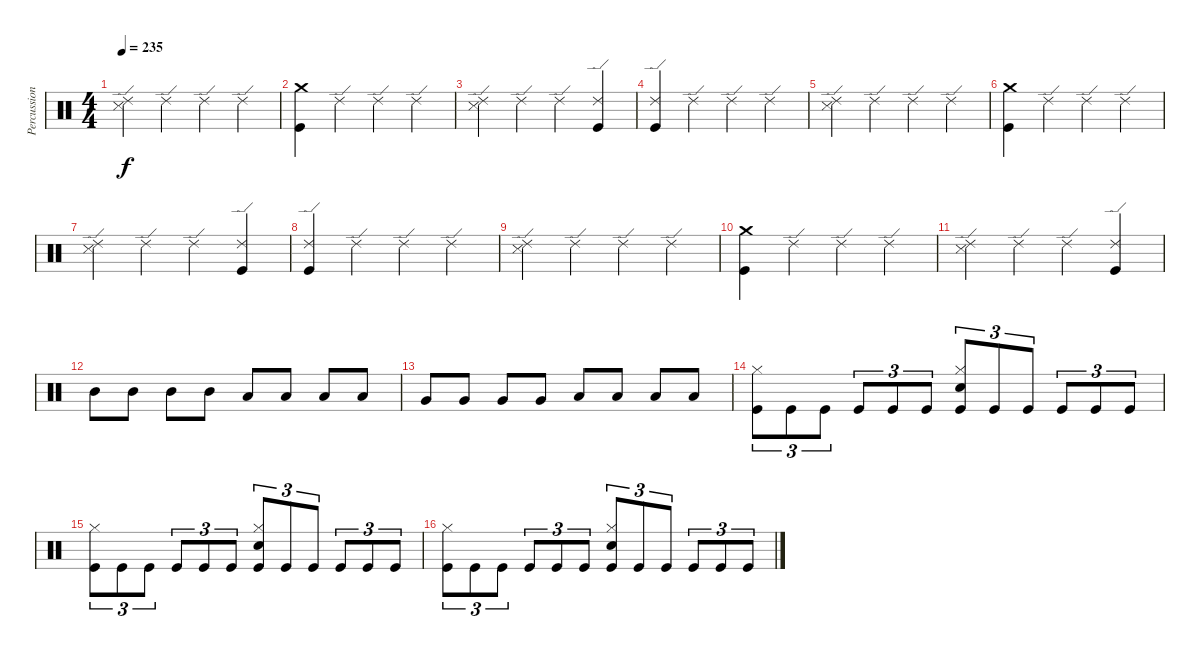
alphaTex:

\track ("Percussion" "Percussion") {instrument percussion}
\staff {score}
\articulation defaults
\ts (4 4)
\tempo 235
\clef neutral
\ks c
("Snare (side stick) 3" "Ride (edge) 2").4{dy f} "Ride (edge) 2".4 "Ride (edge) 2".4 "Ride (edge) 2".4 |
("Kick (hit)" "Crash medium (hit)").4 "Ride (edge) 2".4 "Ride (edge) 2".4 "Ride (edge) 2".4 |
("Snare (side stick) 3" "Ride (edge) 2").4 "Ride (edge) 2".4 "Ride (edge) 2".4 ("Kick (hit)" "Ride (edge) 2").4 |
("Kick (hit)" "Ride (edge) 2").4 "Ride (edge) 2".4 "Ride (edge) 2".4 "Ride (edge) 2".4 |
("Snare (side stick) 3" "Ride (edge) 2").4 "Ride (edge) 2".4 "Ride (edge) 2".4 "Ride (edge) 2".4 |
("Kick (hit)" "Crash medium (hit)").4 "Ride (edge) 2".4 "Ride (edge) 2".4 "Ride (edge) 2".4 |
("Snare (side stick) 3" "Ride (edge) 2").4 "Ride (edge) 2".4 "Ride (edge) 2".4 ("Kick (hit)" "Ride (edge) 2").4 |
("Kick (hit)" "Ride (edge) 2").4 "Ride (edge) 2".4 "Ride (edge) 2".4 "Ride (edge) 2".4 |
("Snare (side stick) 3" "Ride (edge) 2").4 "Ride (edge) 2".4 "Ride (edge) 2".4 "Ride (edge) 2".4 |
("Kick (hit)" "Crash medium (hit)").4 "Ride (edge) 2".4 "Ride (edge) 2".4 "Ride (edge) 2".4 |
("Snare (side stick) 3" "Ride (edge) 2").4 "Ride (edge) 2".4 "Ride (edge) 2".4 ("Kick (hit)" "Ride (edge) 2").4 |
"Mid Tom (hit)".8 "Mid Tom (hit)".8 "Mid Tom (hit)".8 "Mid Tom (hit)".8 "Low Tom (hit)".8 "Low Tom (hit)".8 "Low Tom (hit)".8 "Low Tom (hit)".8 |
"Very Low Tom (hit)".8 "Very Low Tom (hit)".8 "Very Low Tom (hit)".8 "Very Low Tom (hit)".8 "Low Floor Tom (hit)".8 "Low Floor Tom (hit)".8 "Low Floor Tom (hit)".8 "Low Floor Tom (hit)".8 |
("Kick (hit)" "Hi-Hat (closed)").8{tu (3 2)} "Kick (hit)".8{tu (3 2)} "Kick (hit)".8{tu (3 2)} "Kick (hit)".8{tu (3 2)} "Kick (hit)".8{tu (3 2)} "Kick (hit)".8{tu (3 2)} ("Kick (hit)" "Hi-Hat (closed)" "Snare (hit) 2").8{tu (3 2)} "Kick (hit)".8{tu (3 2)} "Kick (hit)".8{tu (3 2)} "Kick (hit)".8{tu (3 2)} "Kick (hit)".8{tu (3 2)} "Kick (hit)".8{tu (3 2)} |
("Kick (hit)" "Hi-Hat (closed)").8{tu (3 2)} "Kick (hit)".8{tu (3 2)} "Kick (hit)".8{tu (3 2)} "Kick (hit)".8{tu (3 2)} "Kick (hit)".8{tu (3 2)} "Kick (hit)".8{tu (3 2)} ("Kick (hit)" "Hi-Hat (closed)" "Snare (hit) 2").8{tu (3 2)} "Kick (hit)".8{tu (3 2)} "Kick (hit)".8{tu (3 2)} "Kick (hit)".8{tu (3 2)} "Kick (hit)".8{tu (3 2)} "Kick (hit)".8{tu (3 2)} |
("Kick (hit)" "Hi-Hat (closed)").8{tu (3 2)} "Kick (hit)".8{tu (3 2)} "Kick (hit)".8{tu (3 2)} "Kick (hit)".8{tu (3 2)} "Kick (hit)".8{tu (3 2)} "Kick (hit)".8{tu (3 2)} ("Kick (hit)" "Hi-Hat (closed)" "Snare (hit) 2").8{tu (3 2)} "Kick (hit)".8{tu (3 2)} "Kick (hit)".8{tu (3 2)} "Kick (hit)".8{tu (3 2)} "Kick (hit)".8{tu (3 2)} "Kick (hit)".8{tu (3 2)}
